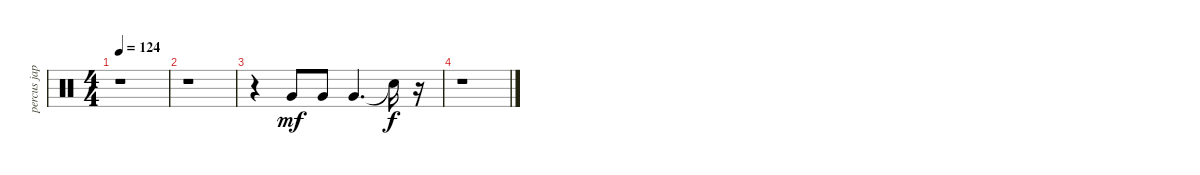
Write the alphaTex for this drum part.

\track ("percus jap" "percus jap") {instrument percussion}
\staff {score}
\articulation defaults
\ts (4 4)
\tempo 124
\clef neutral
\ks c
r.1{dy f} |
r.1 |
r.4 "Very Low Tom (hit)".8{dy mf} "Very Low Tom (hit)".8 "Very Low Tom (hit)".4{d} "Snare (hit)"{t}.16{dy f} r.16 |
r.1
